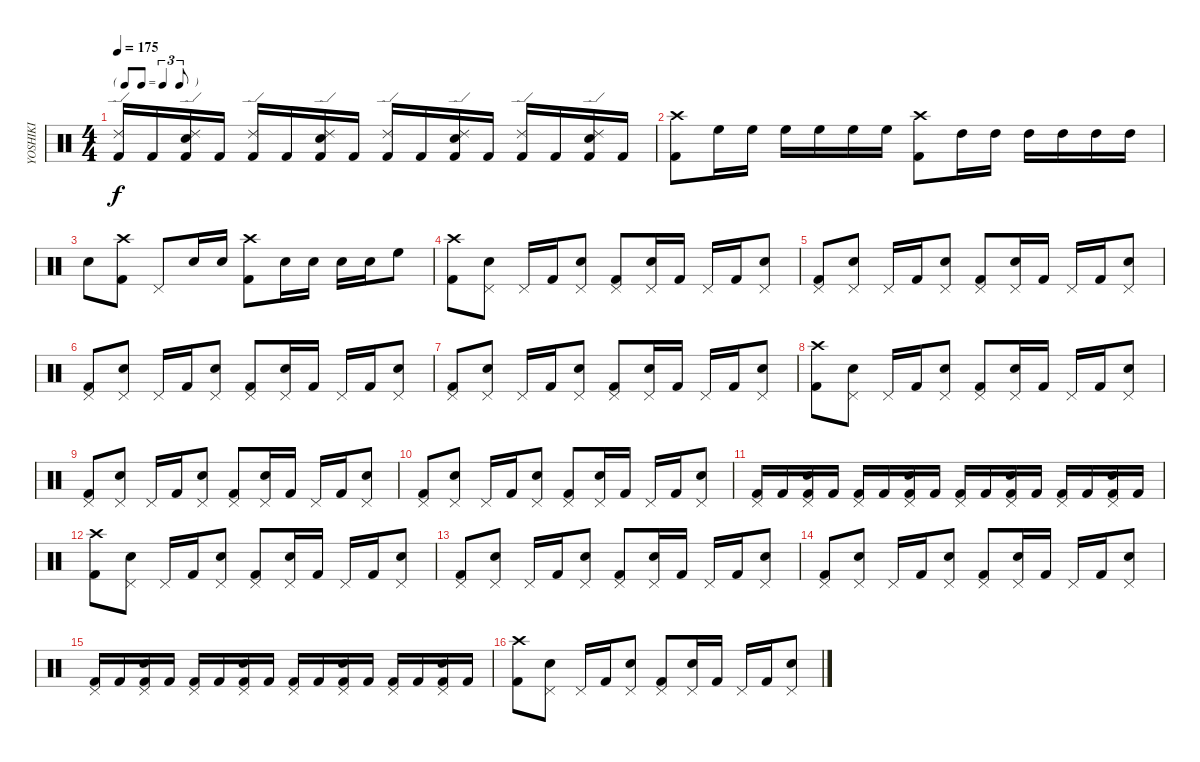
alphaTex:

\track ("YOSHIKI" "YOSHIKI") {instrument percussion}
\staff {score}
\articulation defaults
\ts (4 4)
\tf triplet8th
\tempo 175
\clef neutral
\ks c
("Ride (edge) 2" "Kick (hit) 2").16{dy f} "Kick (hit) 2".16 ("Ride (edge) 2" "Snare (hit) 2" "Kick (hit) 2").16 "Kick (hit) 2".16 ("Ride (edge) 2" "Kick (hit) 2").16 "Kick (hit) 2".16 ("Ride (edge) 2" "Snare (hit) 2" "Kick (hit) 2").16 "Kick (hit) 2".16 ("Ride (edge) 2" "Kick (hit) 2").16 "Kick (hit) 2".16 ("Ride (edge) 2" "Snare (hit) 2" "Kick (hit) 2").16 "Kick (hit) 2".16 ("Ride (edge) 2" "Kick (hit) 2").16 "Kick (hit) 2".16 ("Ride (edge) 2" "Snare (hit) 2" "Kick (hit) 2").16 "Kick (hit) 2".16 |
("Crash high (hit)" "Kick (hit) 2").8 "High Floor Tom (hit)".16 "High Floor Tom (hit)".16 "High Floor Tom (hit)".16 "High Floor Tom (hit)".16 "High Floor Tom (hit)".16 "High Floor Tom (hit)".16 ("Crash high (hit)" "Kick (hit) 2").8 "High Tom (hit)".16 "High Tom (hit)".16 "High Tom (hit)".16 "High Tom (hit)".16 "High Tom (hit)".16 "High Tom (hit)".16 |
"Snare (hit) 2".8 ("Crash high (hit)" "Kick (hit) 2").8 "Pedal Hi-Hat (hit)".8 "Snare (hit) 2".16 "Snare (hit) 2".16 ("Crash high (hit)" "Kick (hit) 2").8 "Snare (hit) 2".16 "Snare (hit) 2".16 "Snare (hit) 2".16 "Snare (hit) 2".16 "High Floor Tom (hit)".8 |
("Crash high (hit)" "Kick (hit) 2").8 ("Pedal Hi-Hat (hit)" "Snare (hit) 2").8 "Pedal Hi-Hat (hit)".16 "Kick (hit) 2".16 ("Pedal Hi-Hat (hit)" "Snare (hit) 2").8 ("Pedal Hi-Hat (hit)" "Kick (hit) 2").8 ("Pedal Hi-Hat (hit)" "Snare (hit) 2").16 "Kick (hit) 2".16 "Pedal Hi-Hat (hit)".16 "Kick (hit) 2".16 ("Pedal Hi-Hat (hit)" "Snare (hit) 2").8 |
("Pedal Hi-Hat (hit)" "Kick (hit) 2").8 ("Pedal Hi-Hat (hit)" "Snare (hit) 2").8 "Pedal Hi-Hat (hit)".16 "Kick (hit) 2".16 ("Pedal Hi-Hat (hit)" "Snare (hit) 2").8 ("Pedal Hi-Hat (hit)" "Kick (hit) 2").8 ("Pedal Hi-Hat (hit)" "Snare (hit) 2").16 "Kick (hit) 2".16 "Pedal Hi-Hat (hit)".16 "Kick (hit) 2".16 ("Pedal Hi-Hat (hit)" "Snare (hit) 2").8 |
("Pedal Hi-Hat (hit)" "Kick (hit) 2").8 ("Pedal Hi-Hat (hit)" "Snare (hit) 2").8 "Pedal Hi-Hat (hit)".16 "Kick (hit) 2".16 ("Pedal Hi-Hat (hit)" "Snare (hit) 2").8 ("Pedal Hi-Hat (hit)" "Kick (hit) 2").8 ("Pedal Hi-Hat (hit)" "Snare (hit) 2").16 "Kick (hit) 2".16 "Pedal Hi-Hat (hit)".16 "Kick (hit) 2".16 ("Pedal Hi-Hat (hit)" "Snare (hit) 2").8 |
("Pedal Hi-Hat (hit)" "Kick (hit) 2").8 ("Pedal Hi-Hat (hit)" "Snare (hit) 2").8 "Pedal Hi-Hat (hit)".16 "Kick (hit) 2".16 ("Pedal Hi-Hat (hit)" "Snare (hit) 2").8 ("Pedal Hi-Hat (hit)" "Kick (hit) 2").8 ("Pedal Hi-Hat (hit)" "Snare (hit) 2").16 "Kick (hit) 2".16 "Pedal Hi-Hat (hit)".16 "Kick (hit) 2".16 ("Pedal Hi-Hat (hit)" "Snare (hit) 2").8 |
("Crash high (hit)" "Kick (hit) 2").8 ("Pedal Hi-Hat (hit)" "Snare (hit) 2").8 "Pedal Hi-Hat (hit)".16 "Kick (hit) 2".16 ("Pedal Hi-Hat (hit)" "Snare (hit) 2").8 ("Pedal Hi-Hat (hit)" "Kick (hit) 2").8 ("Pedal Hi-Hat (hit)" "Snare (hit) 2").16 "Kick (hit) 2".16 "Pedal Hi-Hat (hit)".16 "Kick (hit) 2".16 ("Pedal Hi-Hat (hit)" "Snare (hit) 2").8 |
("Pedal Hi-Hat (hit)" "Kick (hit) 2").8 ("Pedal Hi-Hat (hit)" "Snare (hit) 2").8 "Pedal Hi-Hat (hit)".16 "Kick (hit) 2".16 ("Pedal Hi-Hat (hit)" "Snare (hit) 2").8 ("Pedal Hi-Hat (hit)" "Kick (hit) 2").8 ("Pedal Hi-Hat (hit)" "Snare (hit) 2").16 "Kick (hit) 2".16 "Pedal Hi-Hat (hit)".16 "Kick (hit) 2".16 ("Pedal Hi-Hat (hit)" "Snare (hit) 2").8 |
("Pedal Hi-Hat (hit)" "Kick (hit) 2").8 ("Pedal Hi-Hat (hit)" "Snare (hit) 2").8 "Pedal Hi-Hat (hit)".16 "Kick (hit) 2".16 ("Pedal Hi-Hat (hit)" "Snare (hit) 2").8 ("Pedal Hi-Hat (hit)" "Kick (hit) 2").8 ("Pedal Hi-Hat (hit)" "Snare (hit) 2").16 "Kick (hit) 2".16 "Pedal Hi-Hat (hit)".16 "Kick (hit) 2".16 ("Pedal Hi-Hat (hit)" "Snare (hit) 2").8 |
("Pedal Hi-Hat (hit)" "Kick (hit) 2").16 "Kick (hit) 2".16 ("Pedal Hi-Hat (hit)" "Snare (hit) 2" "Kick (hit) 2").16 "Kick (hit) 2".16 ("Pedal Hi-Hat (hit)" "Kick (hit) 2").16 "Kick (hit) 2".16 ("Pedal Hi-Hat (hit)" "Snare (hit) 2" "Kick (hit) 2").16 "Kick (hit) 2".16 ("Pedal Hi-Hat (hit)" "Kick (hit) 2").16 "Kick (hit) 2".16 ("Pedal Hi-Hat (hit)" "Snare (hit) 2" "Kick (hit) 2").16 "Kick (hit) 2".16 ("Pedal Hi-Hat (hit)" "Kick (hit) 2").16 "Kick (hit) 2".16 ("Pedal Hi-Hat (hit)" "Snare (hit) 2" "Kick (hit) 2").16 "Kick (hit) 2".16 |
("Crash high (hit)" "Kick (hit) 2").8 ("Pedal Hi-Hat (hit)" "Snare (hit) 2").8 "Pedal Hi-Hat (hit)".16 "Kick (hit) 2".16 ("Pedal Hi-Hat (hit)" "Snare (hit) 2").8 ("Pedal Hi-Hat (hit)" "Kick (hit) 2").8 ("Pedal Hi-Hat (hit)" "Snare (hit) 2").16 "Kick (hit) 2".16 "Pedal Hi-Hat (hit)".16 "Kick (hit) 2".16 ("Pedal Hi-Hat (hit)" "Snare (hit) 2").8 |
("Pedal Hi-Hat (hit)" "Kick (hit) 2").8 ("Pedal Hi-Hat (hit)" "Snare (hit) 2").8 "Pedal Hi-Hat (hit)".16 "Kick (hit) 2".16 ("Pedal Hi-Hat (hit)" "Snare (hit) 2").8 ("Pedal Hi-Hat (hit)" "Kick (hit) 2").8 ("Pedal Hi-Hat (hit)" "Snare (hit) 2").16 "Kick (hit) 2".16 "Pedal Hi-Hat (hit)".16 "Kick (hit) 2".16 ("Pedal Hi-Hat (hit)" "Snare (hit) 2").8 |
("Pedal Hi-Hat (hit)" "Kick (hit) 2").8 ("Pedal Hi-Hat (hit)" "Snare (hit) 2").8 "Pedal Hi-Hat (hit)".16 "Kick (hit) 2".16 ("Pedal Hi-Hat (hit)" "Snare (hit) 2").8 ("Pedal Hi-Hat (hit)" "Kick (hit) 2").8 ("Pedal Hi-Hat (hit)" "Snare (hit) 2").16 "Kick (hit) 2".16 "Pedal Hi-Hat (hit)".16 "Kick (hit) 2".16 ("Pedal Hi-Hat (hit)" "Snare (hit) 2").8 |
("Pedal Hi-Hat (hit)" "Kick (hit) 2").16 "Kick (hit) 2".16 ("Pedal Hi-Hat (hit)" "Snare (hit) 2" "Kick (hit) 2").16 "Kick (hit) 2".16 ("Pedal Hi-Hat (hit)" "Kick (hit) 2").16 "Kick (hit) 2".16 ("Pedal Hi-Hat (hit)" "Snare (hit) 2" "Kick (hit) 2").16 "Kick (hit) 2".16 ("Pedal Hi-Hat (hit)" "Kick (hit) 2").16 "Kick (hit) 2".16 ("Pedal Hi-Hat (hit)" "Snare (hit) 2" "Kick (hit) 2").16 "Kick (hit) 2".16 ("Pedal Hi-Hat (hit)" "Kick (hit) 2").16 "Kick (hit) 2".16 ("Pedal Hi-Hat (hit)" "Snare (hit) 2" "Kick (hit) 2").16 "Kick (hit) 2".16 |
("Crash high (hit)" "Kick (hit) 2").8 ("Pedal Hi-Hat (hit)" "Snare (hit) 2").8 "Pedal Hi-Hat (hit)".16 "Kick (hit) 2".16 ("Pedal Hi-Hat (hit)" "Snare (hit) 2").8 ("Pedal Hi-Hat (hit)" "Kick (hit) 2").8 ("Pedal Hi-Hat (hit)" "Snare (hit) 2").16 "Kick (hit) 2".16 "Pedal Hi-Hat (hit)".16 "Kick (hit) 2".16 ("Pedal Hi-Hat (hit)" "Snare (hit) 2").8
